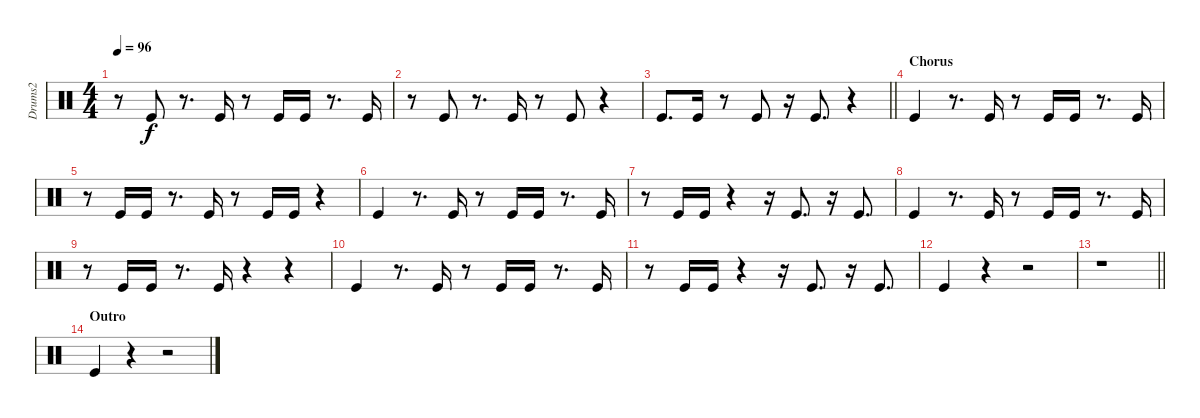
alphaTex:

\track ("Drums2" "Drums2") {instrument percussion}
\staff {score}
\articulation defaults
\ts (4 4)
\tempo 96
\clef neutral
\ks c
r.8{dy f} "Kick (hit)".8 r.8{d} "Kick (hit)".16 r.8 "Kick (hit)".16 "Kick (hit)".16 r.8{d} "Kick (hit)".16 |
r.8 "Kick (hit)".8 r.8{d} "Kick (hit)".16 r.8 "Kick (hit)".8 r.4 |
\barLineRight lightlight "Kick (hit)".8{d} "Kick (hit)".16
r.8 "Kick (hit)".8 r.16 "Kick (hit)".8{d} r.4 |
\section ("" "Chorus")
"Kick (hit)".4 r.8{d} "Kick (hit)".16 r.8 "Kick (hit)".16 "Kick (hit)".16 r.8{d} "Kick (hit)".16 |
r.8 "Kick (hit)".16 "Kick (hit)".16 r.8{d} "Kick (hit)".16 r.8 "Kick (hit)".16 "Kick (hit)".16 r.4 |
"Kick (hit)".4 r.8{d} "Kick (hit)".16 r.8 "Kick (hit)".16 "Kick (hit)".16 r.8{d} "Kick (hit)".16 |
r.8 "Kick (hit)".16 "Kick (hit)".16 r.4 r.16 "Kick (hit)".8{d} r.16 "Kick (hit)".8{d} |
"Kick (hit)".4 r.8{d} "Kick (hit)".16 r.8 "Kick (hit)".16 "Kick (hit)".16 r.8{d} "Kick (hit)".16 |
r.8 "Kick (hit)".16 "Kick (hit)".16 r.8{d} "Kick (hit)".16 r.4 r.4 |
"Kick (hit)".4 r.8{d} "Kick (hit)".16 r.8 "Kick (hit)".16 "Kick (hit)".16 r.8{d} "Kick (hit)".16 |
r.8 "Kick (hit)".16 "Kick (hit)".16 r.4 r.16 "Kick (hit)".8{d} r.16 "Kick (hit)".8{d} |
"Kick (hit)".4 r.4 r.2 |
\barLineRight lightlight
r.1 |
\section ("" "Outro")
"Kick (hit)".4 r.4 r.2
